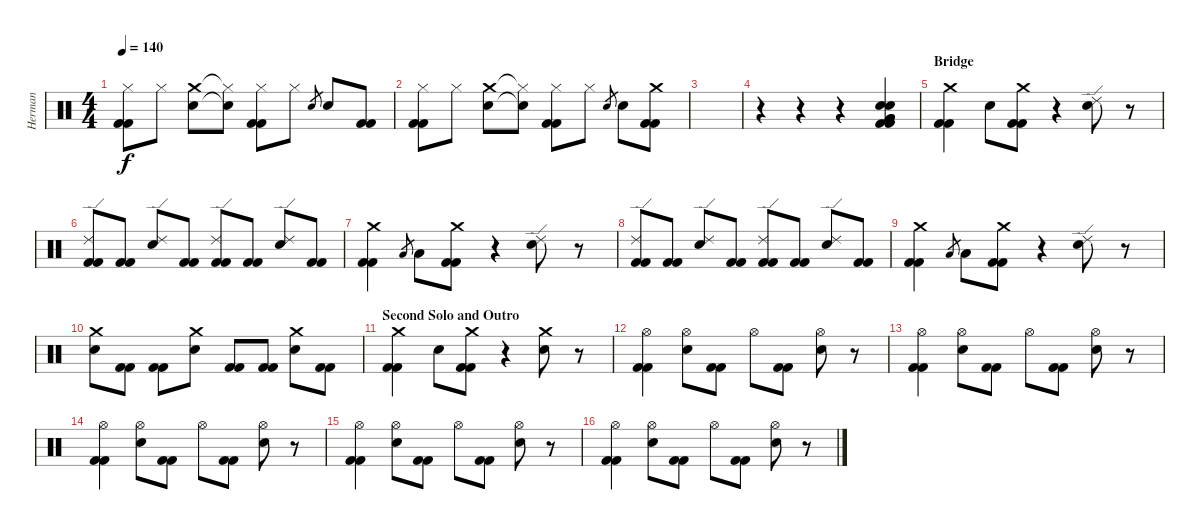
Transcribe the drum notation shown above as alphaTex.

\track ("Herman" "Herman") {instrument percussion}
\staff {score}
\articulation defaults
\ts (4 4)
\tempo 140
\clef neutral
\ks c
("Hi-Hat (closed)" "Kick (hit) 2" "Kick (hit) 2").8{dy f} "Hi-Hat (closed)".8 ("Electric Snare (hit)" "Crash medium (hit)").8 ("Snare (hit)"{t} "Hi-Hat (closed)"{t}).8 ("Hi-Hat (closed)" "Kick (hit) 2" "Kick (hit) 2").8 "Hi-Hat (closed)".8 "Electric Snare (hit)".8{gr} "Electric Snare (hit)".8 ("Kick (hit) 2" "Kick (hit) 2").8 |
("Hi-Hat (closed)" "Kick (hit) 2" "Kick (hit) 2").8 "Hi-Hat (closed)".8 ("Electric Snare (hit)" "Crash medium (hit)").8 ("Snare (hit)"{t} "Hi-Hat (closed)"{t}).8 ("Hi-Hat (closed)" "Kick (hit) 2" "Kick (hit) 2").8 "Hi-Hat (closed)".8 "Electric Snare (hit)".8{gr} "Electric Snare (hit)".8 ("Kick (hit) 2" "Kick (hit) 2" "Crash medium (hit)").8 |
|
r.4 r.4 r.4 ("Very Low Tom (hit)" "Kick (hit) 2" "Kick (hit) 2" "Electric Snare (hit)" "Electric Snare (hit)" "Very Low Tom (hit)").4 |
\section ("" "Bridge")
("Crash medium (hit)" "Kick (hit) 2" "Kick (hit) 2").4 "Electric Snare (hit)".8 ("Crash medium (hit)" "Kick (hit) 2" "Kick (hit) 2").8 r.4 ("Electric Snare (hit)" "Ride (edge) 2").8 r.8 |
("Ride (edge) 2" "Kick (hit) 2" "Kick (hit) 2").8 ("Kick (hit) 2" "Kick (hit) 2").8 ("Ride (edge) 2" "Electric Snare (hit)").8 ("Kick (hit) 2" "Kick (hit) 2").8 ("Ride (edge) 2" "Kick (hit) 2" "Kick (hit) 2").8 ("Kick (hit) 2" "Kick (hit) 2").8 ("Electric Snare (hit)" "Ride (edge) 2").8 ("Kick (hit) 2" "Kick (hit) 2").8 |
("Crash medium (hit)" "Kick (hit) 2" "Kick (hit) 2").4 "Low Tom (hit)".8{gr} "Low Tom (hit)".8 ("Crash medium (hit)" "Kick (hit) 2" "Kick (hit) 2").8 r.4 ("Ride (edge) 2" "Electric Snare (hit)").8 r.8 |
("Ride (edge) 2" "Kick (hit) 2" "Kick (hit) 2").8 ("Kick (hit) 2" "Kick (hit) 2").8 ("Ride (edge) 2" "Electric Snare (hit)").8 ("Kick (hit) 2" "Kick (hit) 2").8 ("Ride (edge) 2" "Kick (hit) 2" "Kick (hit) 2").8 ("Kick (hit) 2" "Kick (hit) 2").8 ("Electric Snare (hit)" "Ride (edge) 2").8 ("Kick (hit) 2" "Kick (hit) 2").8 |
("Crash medium (hit)" "Kick (hit) 2" "Kick (hit) 2").4 "Low Tom (hit)".8{gr} "Low Tom (hit)".8 ("Crash medium (hit)" "Kick (hit) 2" "Kick (hit) 2").8 r.4 ("Ride (edge) 2" "Electric Snare (hit)").8 r.8 |
("Electric Snare (hit)" "Crash medium (hit)").8 ("Kick (hit) 2" "Kick (hit) 2").8 ("Kick (hit) 2" "Kick (hit) 2").8 ("Electric Snare (hit)" "Crash medium (hit)").8 ("Kick (hit) 2" "Kick (hit) 2").8 ("Kick (hit) 2" "Kick (hit) 2").8 ("Electric Snare (hit)" "Crash medium (hit)").8 ("Kick (hit) 2" "Kick (hit) 2").8 |
\section ("" "Second Solo and Outro")
("Crash medium (hit)" "Kick (hit) 2" "Kick (hit) 2").4 "Electric Snare (hit)".8 ("Crash medium (hit)" "Kick (hit) 2" "Kick (hit) 2").8 r.4 ("Electric Snare (hit)" "Crash medium (hit)").8 r.8 |
("Hi-Hat (open)" "Kick (hit) 2" "Kick (hit) 2").4 ("Electric Snare (hit)" "Hi-Hat (open)").8 ("Kick (hit) 2" "Kick (hit) 2").8 "Hi-Hat (open)".8 ("Kick (hit) 2" "Kick (hit) 2").8 ("Hi-Hat (open)" "Electric Snare (hit)").8 r.8 |
("Hi-Hat (open)" "Kick (hit) 2" "Kick (hit) 2").4 ("Electric Snare (hit)" "Hi-Hat (open)").8 ("Kick (hit) 2" "Kick (hit) 2").8 "Hi-Hat (open)".8 ("Kick (hit) 2" "Kick (hit) 2").8 ("Hi-Hat (open)" "Electric Snare (hit)").8 r.8 |
("Hi-Hat (open)" "Kick (hit) 2" "Kick (hit) 2").4 ("Electric Snare (hit)" "Hi-Hat (open)").8 ("Kick (hit) 2" "Kick (hit) 2").8 "Hi-Hat (open)".8 ("Kick (hit) 2" "Kick (hit) 2").8 ("Hi-Hat (open)" "Electric Snare (hit)").8 r.8 |
("Hi-Hat (open)" "Kick (hit) 2" "Kick (hit) 2").4 ("Electric Snare (hit)" "Hi-Hat (open)").8 ("Kick (hit) 2" "Kick (hit) 2").8 "Hi-Hat (open)".8 ("Kick (hit) 2" "Kick (hit) 2").8 ("Hi-Hat (open)" "Electric Snare (hit)").8 r.8 |
("Hi-Hat (open)" "Kick (hit) 2" "Kick (hit) 2").4 ("Electric Snare (hit)" "Hi-Hat (open)").8 ("Kick (hit) 2" "Kick (hit) 2").8 "Hi-Hat (open)".8 ("Kick (hit) 2" "Kick (hit) 2").8 ("Hi-Hat (open)" "Electric Snare (hit)").8 r.8
